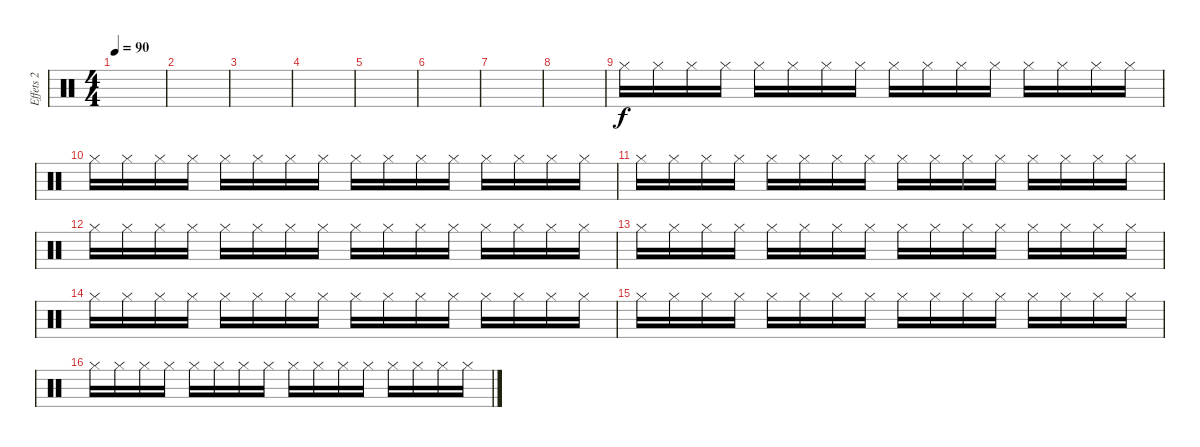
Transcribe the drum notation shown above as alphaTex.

\track ("Effets 2" "Effets 2") {instrument percussion}
\staff {score}
\articulation defaults
\ts (4 4)
\tempo 90
\clef neutral
\ks c
|
|
|
|
|
|
|
|
"Hi-Hat (closed)".16{balance 0} "Hi-Hat (closed)".16 "Hi-Hat (closed)".16{balance 16} "Hi-Hat (closed)".16 "Hi-Hat (closed)".16{balance 0} "Hi-Hat (closed)".16 "Hi-Hat (closed)".16{balance 16} "Hi-Hat (closed)".16 "Hi-Hat (closed)".16{balance 0} "Hi-Hat (closed)".16 "Hi-Hat (closed)".16{balance 16} "Hi-Hat (closed)".16 "Hi-Hat (closed)".16{balance 0} "Hi-Hat (closed)".16 "Hi-Hat (closed)".16{balance 16} "Hi-Hat (closed)".16 |
"Hi-Hat (closed)".16{balance 0} "Hi-Hat (closed)".16 "Hi-Hat (closed)".16{balance 16} "Hi-Hat (closed)".16 "Hi-Hat (closed)".16{balance 0} "Hi-Hat (closed)".16 "Hi-Hat (closed)".16{balance 16} "Hi-Hat (closed)".16 "Hi-Hat (closed)".16{balance 0} "Hi-Hat (closed)".16 "Hi-Hat (closed)".16{balance 16} "Hi-Hat (closed)".16 "Hi-Hat (closed)".16{balance 0} "Hi-Hat (closed)".16 "Hi-Hat (closed)".16{balance 16} "Hi-Hat (closed)".16 |
"Hi-Hat (closed)".16{balance 0} "Hi-Hat (closed)".16 "Hi-Hat (closed)".16{balance 16} "Hi-Hat (closed)".16 "Hi-Hat (closed)".16{balance 0} "Hi-Hat (closed)".16 "Hi-Hat (closed)".16{balance 16} "Hi-Hat (closed)".16 "Hi-Hat (closed)".16{balance 0} "Hi-Hat (closed)".16 "Hi-Hat (closed)".16{balance 16} "Hi-Hat (closed)".16 "Hi-Hat (closed)".16{balance 0} "Hi-Hat (closed)".16 "Hi-Hat (closed)".16{balance 16} "Hi-Hat (closed)".16 |
"Hi-Hat (closed)".16{balance 0} "Hi-Hat (closed)".16 "Hi-Hat (closed)".16{balance 16} "Hi-Hat (closed)".16 "Hi-Hat (closed)".16{balance 0} "Hi-Hat (closed)".16 "Hi-Hat (closed)".16{balance 16} "Hi-Hat (closed)".16 "Hi-Hat (closed)".16{balance 0} "Hi-Hat (closed)".16 "Hi-Hat (closed)".16{balance 16} "Hi-Hat (closed)".16 "Hi-Hat (closed)".16{balance 0} "Hi-Hat (closed)".16 "Hi-Hat (closed)".16{balance 16} "Hi-Hat (closed)".16 |
"Hi-Hat (closed)".16{balance 0} "Hi-Hat (closed)".16 "Hi-Hat (closed)".16{balance 16} "Hi-Hat (closed)".16 "Hi-Hat (closed)".16{balance 0} "Hi-Hat (closed)".16 "Hi-Hat (closed)".16{balance 16} "Hi-Hat (closed)".16 "Hi-Hat (closed)".16{balance 0} "Hi-Hat (closed)".16 "Hi-Hat (closed)".16{balance 16} "Hi-Hat (closed)".16 "Hi-Hat (closed)".16{balance 0} "Hi-Hat (closed)".16 "Hi-Hat (closed)".16{balance 16} "Hi-Hat (closed)".16 |
"Hi-Hat (closed)".16{balance 0} "Hi-Hat (closed)".16 "Hi-Hat (closed)".16{balance 16} "Hi-Hat (closed)".16 "Hi-Hat (closed)".16{balance 0} "Hi-Hat (closed)".16 "Hi-Hat (closed)".16{balance 16} "Hi-Hat (closed)".16 "Hi-Hat (closed)".16{balance 0} "Hi-Hat (closed)".16 "Hi-Hat (closed)".16{balance 16} "Hi-Hat (closed)".16 "Hi-Hat (closed)".16{balance 0} "Hi-Hat (closed)".16 "Hi-Hat (closed)".16{balance 16} "Hi-Hat (closed)".16 |
"Hi-Hat (closed)".16{balance 0} "Hi-Hat (closed)".16 "Hi-Hat (closed)".16{balance 16} "Hi-Hat (closed)".16 "Hi-Hat (closed)".16{balance 0} "Hi-Hat (closed)".16 "Hi-Hat (closed)".16{balance 16} "Hi-Hat (closed)".16 "Hi-Hat (closed)".16{balance 0} "Hi-Hat (closed)".16 "Hi-Hat (closed)".16{balance 16} "Hi-Hat (closed)".16 "Hi-Hat (closed)".16{balance 0} "Hi-Hat (closed)".16 "Hi-Hat (closed)".16{balance 16} "Hi-Hat (closed)".16 |
"Hi-Hat (closed)".16{balance 0} "Hi-Hat (closed)".16 "Hi-Hat (closed)".16{balance 16} "Hi-Hat (closed)".16 "Hi-Hat (closed)".16{balance 0} "Hi-Hat (closed)".16 "Hi-Hat (closed)".16{balance 16} "Hi-Hat (closed)".16 "Hi-Hat (closed)".16{balance 0} "Hi-Hat (closed)".16 "Hi-Hat (closed)".16{balance 16} "Hi-Hat (closed)".16 "Hi-Hat (closed)".16{balance 0} "Hi-Hat (closed)".16 "Hi-Hat (closed)".16{balance 16} "Hi-Hat (closed)".16
